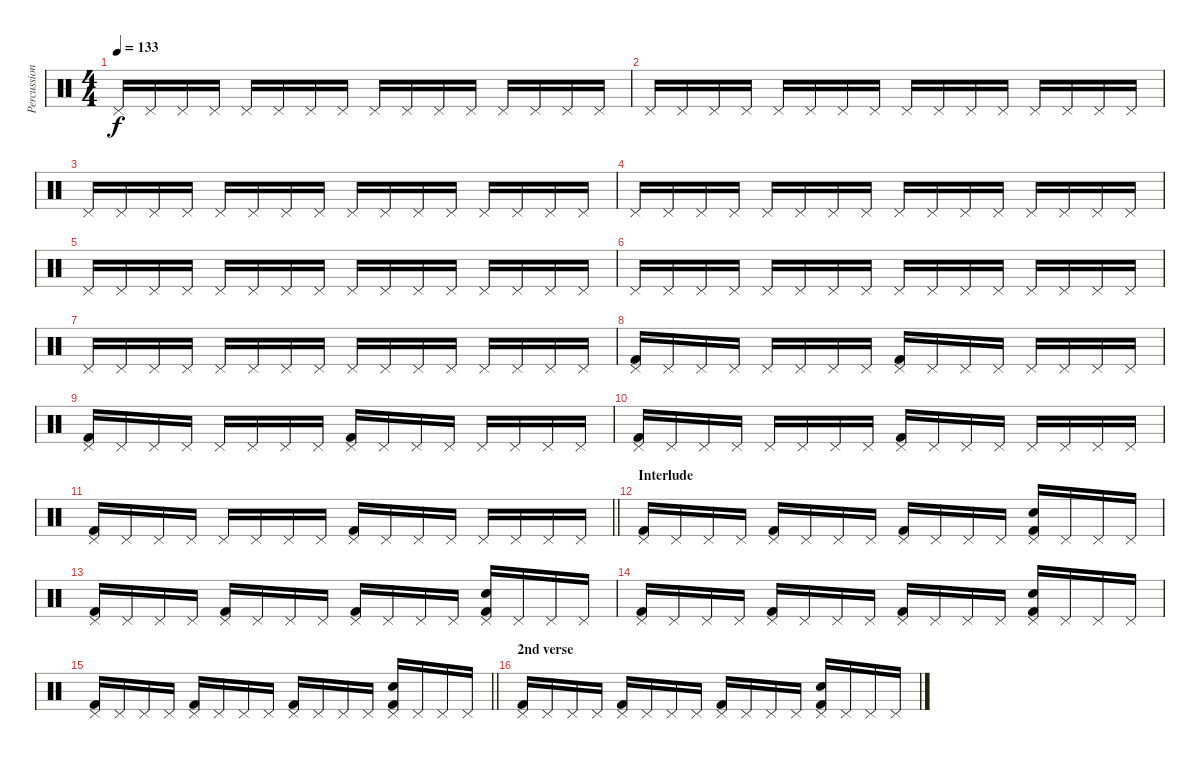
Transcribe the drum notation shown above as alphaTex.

\track ("Percussions" "Percussion") {instrument percussion}
\staff {score}
\articulation defaults
\ts (4 4)
\tempo 133
\clef neutral
\ks c "Pedal Hi-Hat (hit)".16{dy f} "Pedal Hi-Hat (hit)".16 "Pedal Hi-Hat (hit)".16 "Pedal Hi-Hat (hit)".16 "Pedal Hi-Hat (hit)".16 "Pedal Hi-Hat (hit)".16 "Pedal Hi-Hat (hit)".16 "Pedal Hi-Hat (hit)".16 "Pedal Hi-Hat (hit)".16 "Pedal Hi-Hat (hit)".16 "Pedal Hi-Hat (hit)".16 "Pedal Hi-Hat (hit)".16 "Pedal Hi-Hat (hit)".16 "Pedal Hi-Hat (hit)".16 "Pedal Hi-Hat (hit)".16 "Pedal Hi-Hat (hit)".16
|
"Pedal Hi-Hat (hit)".16 "Pedal Hi-Hat (hit)".16 "Pedal Hi-Hat (hit)".16 "Pedal Hi-Hat (hit)".16 "Pedal Hi-Hat (hit)".16 "Pedal Hi-Hat (hit)".16 "Pedal Hi-Hat (hit)".16 "Pedal Hi-Hat (hit)".16 "Pedal Hi-Hat (hit)".16 "Pedal Hi-Hat (hit)".16 "Pedal Hi-Hat (hit)".16 "Pedal Hi-Hat (hit)".16 "Pedal Hi-Hat (hit)".16 "Pedal Hi-Hat (hit)".16 "Pedal Hi-Hat (hit)".16 "Pedal Hi-Hat (hit)".16 |
"Pedal Hi-Hat (hit)".16 "Pedal Hi-Hat (hit)".16 "Pedal Hi-Hat (hit)".16 "Pedal Hi-Hat (hit)".16 "Pedal Hi-Hat (hit)".16 "Pedal Hi-Hat (hit)".16 "Pedal Hi-Hat (hit)".16 "Pedal Hi-Hat (hit)".16 "Pedal Hi-Hat (hit)".16 "Pedal Hi-Hat (hit)".16 "Pedal Hi-Hat (hit)".16 "Pedal Hi-Hat (hit)".16 "Pedal Hi-Hat (hit)".16 "Pedal Hi-Hat (hit)".16 "Pedal Hi-Hat (hit)".16 "Pedal Hi-Hat (hit)".16 |
"Pedal Hi-Hat (hit)".16 "Pedal Hi-Hat (hit)".16 "Pedal Hi-Hat (hit)".16 "Pedal Hi-Hat (hit)".16 "Pedal Hi-Hat (hit)".16 "Pedal Hi-Hat (hit)".16 "Pedal Hi-Hat (hit)".16 "Pedal Hi-Hat (hit)".16 "Pedal Hi-Hat (hit)".16 "Pedal Hi-Hat (hit)".16 "Pedal Hi-Hat (hit)".16 "Pedal Hi-Hat (hit)".16 "Pedal Hi-Hat (hit)".16 "Pedal Hi-Hat (hit)".16 "Pedal Hi-Hat (hit)".16 "Pedal Hi-Hat (hit)".16 |
"Pedal Hi-Hat (hit)".16 "Pedal Hi-Hat (hit)".16 "Pedal Hi-Hat (hit)".16 "Pedal Hi-Hat (hit)".16 "Pedal Hi-Hat (hit)".16 "Pedal Hi-Hat (hit)".16 "Pedal Hi-Hat (hit)".16 "Pedal Hi-Hat (hit)".16 "Pedal Hi-Hat (hit)".16 "Pedal Hi-Hat (hit)".16 "Pedal Hi-Hat (hit)".16 "Pedal Hi-Hat (hit)".16 "Pedal Hi-Hat (hit)".16 "Pedal Hi-Hat (hit)".16 "Pedal Hi-Hat (hit)".16 "Pedal Hi-Hat (hit)".16 |
"Pedal Hi-Hat (hit)".16 "Pedal Hi-Hat (hit)".16 "Pedal Hi-Hat (hit)".16 "Pedal Hi-Hat (hit)".16 "Pedal Hi-Hat (hit)".16 "Pedal Hi-Hat (hit)".16 "Pedal Hi-Hat (hit)".16 "Pedal Hi-Hat (hit)".16 "Pedal Hi-Hat (hit)".16 "Pedal Hi-Hat (hit)".16 "Pedal Hi-Hat (hit)".16 "Pedal Hi-Hat (hit)".16 "Pedal Hi-Hat (hit)".16 "Pedal Hi-Hat (hit)".16 "Pedal Hi-Hat (hit)".16 "Pedal Hi-Hat (hit)".16 |
"Pedal Hi-Hat (hit)".16 "Pedal Hi-Hat (hit)".16 "Pedal Hi-Hat (hit)".16 "Pedal Hi-Hat (hit)".16 "Pedal Hi-Hat (hit)".16 "Pedal Hi-Hat (hit)".16 "Pedal Hi-Hat (hit)".16 "Pedal Hi-Hat (hit)".16 "Pedal Hi-Hat (hit)".16 "Pedal Hi-Hat (hit)".16 "Pedal Hi-Hat (hit)".16 "Pedal Hi-Hat (hit)".16 "Pedal Hi-Hat (hit)".16 "Pedal Hi-Hat (hit)".16 "Pedal Hi-Hat (hit)".16 "Pedal Hi-Hat (hit)".16 |
("Pedal Hi-Hat (hit)" "Kick (hit) 2").16 "Pedal Hi-Hat (hit)".16 "Pedal Hi-Hat (hit)".16 "Pedal Hi-Hat (hit)".16 "Pedal Hi-Hat (hit)".16 "Pedal Hi-Hat (hit)".16 "Pedal Hi-Hat (hit)".16 "Pedal Hi-Hat (hit)".16 ("Pedal Hi-Hat (hit)" "Kick (hit) 2").16 "Pedal Hi-Hat (hit)".16 "Pedal Hi-Hat (hit)".16 "Pedal Hi-Hat (hit)".16 "Pedal Hi-Hat (hit)".16 "Pedal Hi-Hat (hit)".16 "Pedal Hi-Hat (hit)".16 "Pedal Hi-Hat (hit)".16 |
("Pedal Hi-Hat (hit)" "Kick (hit) 2").16 "Pedal Hi-Hat (hit)".16 "Pedal Hi-Hat (hit)".16 "Pedal Hi-Hat (hit)".16 "Pedal Hi-Hat (hit)".16 "Pedal Hi-Hat (hit)".16 "Pedal Hi-Hat (hit)".16 "Pedal Hi-Hat (hit)".16 ("Pedal Hi-Hat (hit)" "Kick (hit) 2").16 "Pedal Hi-Hat (hit)".16 "Pedal Hi-Hat (hit)".16 "Pedal Hi-Hat (hit)".16 "Pedal Hi-Hat (hit)".16 "Pedal Hi-Hat (hit)".16 "Pedal Hi-Hat (hit)".16 "Pedal Hi-Hat (hit)".16 |
("Pedal Hi-Hat (hit)" "Kick (hit) 2").16 "Pedal Hi-Hat (hit)".16 "Pedal Hi-Hat (hit)".16 "Pedal Hi-Hat (hit)".16 "Pedal Hi-Hat (hit)".16 "Pedal Hi-Hat (hit)".16 "Pedal Hi-Hat (hit)".16 "Pedal Hi-Hat (hit)".16 ("Pedal Hi-Hat (hit)" "Kick (hit) 2").16 "Pedal Hi-Hat (hit)".16 "Pedal Hi-Hat (hit)".16 "Pedal Hi-Hat (hit)".16 "Pedal Hi-Hat (hit)".16 "Pedal Hi-Hat (hit)".16 "Pedal Hi-Hat (hit)".16 "Pedal Hi-Hat (hit)".16 |
\barLineRight lightlight
("Pedal Hi-Hat (hit)" "Kick (hit) 2").16 "Pedal Hi-Hat (hit)".16 "Pedal Hi-Hat (hit)".16 "Pedal Hi-Hat (hit)".16 "Pedal Hi-Hat (hit)".16 "Pedal Hi-Hat (hit)".16 "Pedal Hi-Hat (hit)".16 "Pedal Hi-Hat (hit)".16 ("Pedal Hi-Hat (hit)" "Kick (hit) 2").16 "Pedal Hi-Hat (hit)".16 "Pedal Hi-Hat (hit)".16 "Pedal Hi-Hat (hit)".16 "Pedal Hi-Hat (hit)".16 "Pedal Hi-Hat (hit)".16 "Pedal Hi-Hat (hit)".16 "Pedal Hi-Hat (hit)".16 |
\section ("" "Interlude")
("Pedal Hi-Hat (hit)" "Kick (hit) 2").16 "Pedal Hi-Hat (hit)".16 "Pedal Hi-Hat (hit)".16 "Pedal Hi-Hat (hit)".16 ("Pedal Hi-Hat (hit)" "Kick (hit) 2").16 "Pedal Hi-Hat (hit)".16 "Pedal Hi-Hat (hit)".16 "Pedal Hi-Hat (hit)".16 ("Pedal Hi-Hat (hit)" "Kick (hit) 2").16 "Pedal Hi-Hat (hit)".16 "Pedal Hi-Hat (hit)".16 "Pedal Hi-Hat (hit)".16 ("Pedal Hi-Hat (hit)" "Electric Snare (hit)" "Kick (hit) 2").16 "Pedal Hi-Hat (hit)".16 "Pedal Hi-Hat (hit)".16 "Pedal Hi-Hat (hit)".16 |
("Pedal Hi-Hat (hit)" "Kick (hit) 2").16 "Pedal Hi-Hat (hit)".16 "Pedal Hi-Hat (hit)".16 "Pedal Hi-Hat (hit)".16 ("Pedal Hi-Hat (hit)" "Kick (hit) 2").16 "Pedal Hi-Hat (hit)".16 "Pedal Hi-Hat (hit)".16 "Pedal Hi-Hat (hit)".16 ("Pedal Hi-Hat (hit)" "Kick (hit) 2").16 "Pedal Hi-Hat (hit)".16 "Pedal Hi-Hat (hit)".16 "Pedal Hi-Hat (hit)".16 ("Pedal Hi-Hat (hit)" "Electric Snare (hit)" "Kick (hit) 2").16 "Pedal Hi-Hat (hit)".16 "Pedal Hi-Hat (hit)".16 "Pedal Hi-Hat (hit)".16 |
("Pedal Hi-Hat (hit)" "Kick (hit) 2").16 "Pedal Hi-Hat (hit)".16 "Pedal Hi-Hat (hit)".16 "Pedal Hi-Hat (hit)".16 ("Pedal Hi-Hat (hit)" "Kick (hit) 2").16 "Pedal Hi-Hat (hit)".16 "Pedal Hi-Hat (hit)".16 "Pedal Hi-Hat (hit)".16 ("Pedal Hi-Hat (hit)" "Kick (hit) 2").16 "Pedal Hi-Hat (hit)".16 "Pedal Hi-Hat (hit)".16 "Pedal Hi-Hat (hit)".16 ("Pedal Hi-Hat (hit)" "Electric Snare (hit)" "Kick (hit) 2").16 "Pedal Hi-Hat (hit)".16 "Pedal Hi-Hat (hit)".16 "Pedal Hi-Hat (hit)".16 |
\barLineRight lightlight
("Pedal Hi-Hat (hit)" "Kick (hit) 2").16 "Pedal Hi-Hat (hit)".16 "Pedal Hi-Hat (hit)".16 "Pedal Hi-Hat (hit)".16 ("Pedal Hi-Hat (hit)" "Kick (hit) 2").16 "Pedal Hi-Hat (hit)".16 "Pedal Hi-Hat (hit)".16 "Pedal Hi-Hat (hit)".16 ("Pedal Hi-Hat (hit)" "Kick (hit) 2").16 "Pedal Hi-Hat (hit)".16 "Pedal Hi-Hat (hit)".16 "Pedal Hi-Hat (hit)".16 ("Pedal Hi-Hat (hit)" "Electric Snare (hit)" "Kick (hit) 2").16 "Pedal Hi-Hat (hit)".16 "Pedal Hi-Hat (hit)".16 "Pedal Hi-Hat (hit)".16 |
\section ("" "2nd verse")
("Pedal Hi-Hat (hit)" "Kick (hit) 2").16 "Pedal Hi-Hat (hit)".16 "Pedal Hi-Hat (hit)".16 "Pedal Hi-Hat (hit)".16 ("Pedal Hi-Hat (hit)" "Kick (hit) 2").16 "Pedal Hi-Hat (hit)".16 "Pedal Hi-Hat (hit)".16 "Pedal Hi-Hat (hit)".16 ("Pedal Hi-Hat (hit)" "Kick (hit) 2").16 "Pedal Hi-Hat (hit)".16 "Pedal Hi-Hat (hit)".16 "Pedal Hi-Hat (hit)".16 ("Pedal Hi-Hat (hit)" "Electric Snare (hit)" "Kick (hit) 2").16 "Pedal Hi-Hat (hit)".16 "Pedal Hi-Hat (hit)".16 "Pedal Hi-Hat (hit)".16
